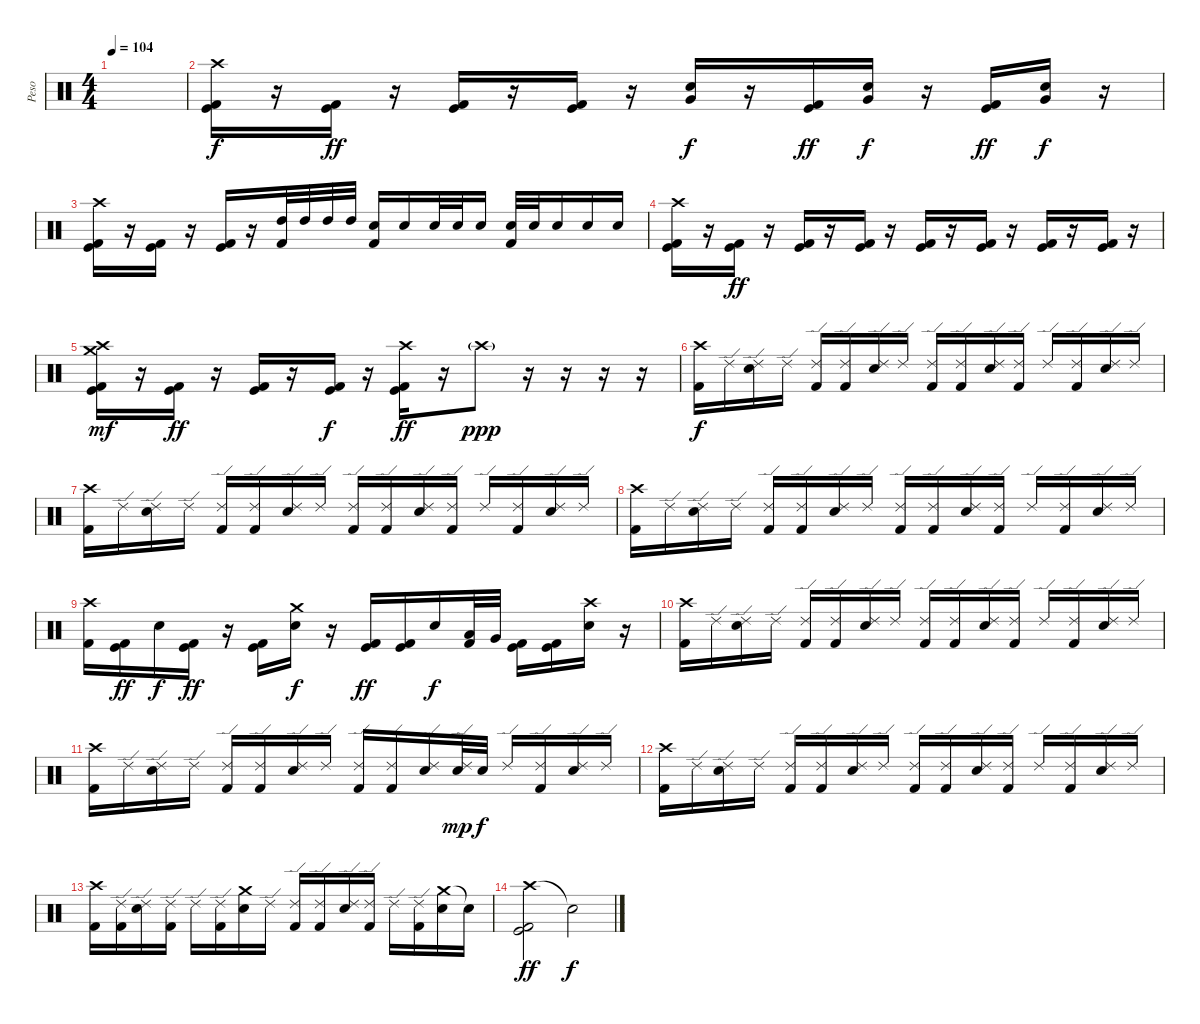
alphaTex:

\track ("Peso" "Peso") {instrument percussion}
\staff {score}
\articulation defaults
\ts (4 4)
\tempo 104
\clef neutral
\ks c
|
("Crash high (hit)" "Kick (hit)" "Kick (hit) 2").16{dy f} r.16 ("Kick (hit)" "Kick (hit) 2").16{dy ff} r.16 ("Kick (hit)" "Kick (hit) 2").16 r.16 ("Kick (hit)" "Kick (hit) 2").16 r.16 ("Very Low Tom (hit)" "Electric Snare (hit)").16{dy f} r.16 ("Kick (hit)" "Kick (hit) 2").16{dy ff} ("Very Low Tom (hit)" "Electric Snare (hit)").16{dy f} r.16 ("Kick (hit)" "Kick (hit) 2").16{dy ff} ("Very Low Tom (hit)" "Electric Snare (hit)").16{dy f} r.16 |
("Crash high (hit)" "Kick (hit)" "Kick (hit) 2").16 r.16 ("Kick (hit)" "Kick (hit) 2").16 r.16 ("Kick (hit)" "Kick (hit) 2").16 r.16 ("High Tom (hit)" "Kick (hit) 2").32 "High Tom (hit)".32 "High Tom (hit)".32 "High Tom (hit)".32 ("Electric Snare (hit)" "Kick (hit) 2").16 "Electric Snare (hit)".16 "Electric Snare (hit)".32 "Electric Snare (hit)".32 "Electric Snare (hit)".16 ("Electric Snare (hit)" "Kick (hit) 2").32 "Electric Snare (hit)".32 "Electric Snare (hit)".16 "Electric Snare (hit)".16 "Electric Snare (hit)".16 |
("Crash high (hit)" "Kick (hit)" "Kick (hit) 2").16 r.16 ("Kick (hit)" "Kick (hit) 2").16{dy ff} r.16 ("Kick (hit)" "Kick (hit) 2").16 r.16 ("Kick (hit)" "Kick (hit) 2").16 r.16 ("Kick (hit)" "Kick (hit) 2").16 r.16 ("Kick (hit)" "Kick (hit) 2").16 r.16 ("Kick (hit)" "Kick (hit) 2").16 r.16 ("Kick (hit)" "Kick (hit) 2").16 r.16 |
("Crash high (hit)" "Crash medium (hit)" "Kick (hit)" "Kick (hit) 2").16{dy mf} r.16 ("Kick (hit)" "Kick (hit) 2").16{dy ff} r.16 ("Kick (hit)" "Kick (hit) 2").16 r.16 ("Kick (hit)" "Kick (hit) 2").16{dy f} r.16 ("Crash high (hit)" "Kick (hit)" "Kick (hit) 2").16{dy ff} r.16 "Crash high (hit)"{g}.8{dy ppp} r.16 r.16 r.16 r.16 |
("Crash high (hit)" "Kick (hit) 2").16{dy f} "Ride (edge) 2".16 ("Ride (edge) 2" "Electric Snare (hit)").16 "Ride (edge) 2".16 ("Ride (edge) 2" "Kick (hit) 2").16 ("Ride (edge) 2" "Kick (hit) 2").16 ("Ride (edge) 2" "Electric Snare (hit)").16 "Ride (edge) 2".16 ("Ride (edge) 2" "Kick (hit) 2").16 ("Ride (edge) 2" "Kick (hit) 2").16 ("Ride (edge) 2" "Electric Snare (hit)").16 ("Ride (edge) 2" "Kick (hit) 2").16 "Ride (edge) 2".16 ("Ride (edge) 2" "Kick (hit) 2").16 ("Ride (edge) 2" "Electric Snare (hit)").16 "Ride (edge) 2".16 |
("Crash high (hit)" "Kick (hit) 2").16 "Ride (edge) 2".16 ("Ride (edge) 2" "Electric Snare (hit)").16 "Ride (edge) 2".16 ("Ride (edge) 2" "Kick (hit) 2").16 ("Ride (edge) 2" "Kick (hit) 2").16 ("Ride (edge) 2" "Electric Snare (hit)").16 "Ride (edge) 2".16 ("Ride (edge) 2" "Kick (hit) 2").16 ("Ride (edge) 2" "Kick (hit) 2").16 ("Ride (edge) 2" "Electric Snare (hit)").16 ("Ride (edge) 2" "Kick (hit) 2").16 "Ride (edge) 2".16 ("Ride (edge) 2" "Kick (hit) 2").16 ("Ride (edge) 2" "Electric Snare (hit)").16 "Ride (edge) 2".16 |
("Crash high (hit)" "Kick (hit) 2").16 "Ride (edge) 2".16 ("Ride (edge) 2" "Electric Snare (hit)").16 "Ride (edge) 2".16 ("Ride (edge) 2" "Kick (hit) 2").16 ("Ride (edge) 2" "Kick (hit) 2").16 ("Ride (edge) 2" "Electric Snare (hit)").16 "Ride (edge) 2".16 ("Ride (edge) 2" "Kick (hit) 2").16 ("Ride (edge) 2" "Kick (hit) 2").16 ("Ride (edge) 2" "Electric Snare (hit)").16 ("Ride (edge) 2" "Kick (hit) 2").16 "Ride (edge) 2".16 ("Ride (edge) 2" "Kick (hit) 2").16 ("Ride (edge) 2" "Electric Snare (hit)").16 "Ride (edge) 2".16 |
("Crash high (hit)" "Kick (hit) 2").16 ("Kick (hit)" "Kick (hit) 2").16{dy ff} "Electric Snare (hit)".16{dy f} ("Kick (hit)" "Kick (hit) 2").16{dy ff} r.16 ("Kick (hit)" "Kick (hit) 2").16 ("Crash medium (hit)" "Electric Snare (hit)").16{dy f} r.16 ("Kick (hit)" "Kick (hit) 2").16{dy ff} ("Kick (hit)" "Kick (hit) 2").16 "Electric Snare (hit)".16{dy f} ("Low Tom (hit)" "Kick (hit) 2").32 "Very Low Tom (hit)".32 ("Kick (hit)" "Kick (hit) 2").16 ("Kick (hit)" "Kick (hit) 2").16 ("Crash high (hit)" "Electric Snare (hit)").16 r.16 |
("Crash high (hit)" "Kick (hit) 2").16 "Ride (edge) 2".16 ("Ride (edge) 2" "Electric Snare (hit)").16 "Ride (edge) 2".16 ("Ride (edge) 2" "Kick (hit) 2").16 ("Ride (edge) 2" "Kick (hit) 2").16 ("Ride (edge) 2" "Electric Snare (hit)").16 "Ride (edge) 2".16 ("Ride (edge) 2" "Kick (hit) 2").16 ("Ride (edge) 2" "Kick (hit) 2").16 ("Ride (edge) 2" "Electric Snare (hit)").16 ("Ride (edge) 2" "Kick (hit) 2").16 "Ride (edge) 2".16 ("Ride (edge) 2" "Kick (hit) 2").16 ("Ride (edge) 2" "Electric Snare (hit)").16 "Ride (edge) 2".16 |
("Crash high (hit)" "Kick (hit) 2").16 "Ride (edge) 2".16 ("Ride (edge) 2" "Electric Snare (hit)").16 "Ride (edge) 2".16 ("Ride (edge) 2" "Kick (hit) 2").16 ("Ride (edge) 2" "Kick (hit) 2").16 ("Ride (edge) 2" "Electric Snare (hit)").16 "Ride (edge) 2".16 ("Ride (edge) 2" "Kick (hit) 2").16 ("Ride (edge) 2" "Kick (hit) 2").16 ("Ride (edge) 2" "Electric Snare (hit)").16 ("Ride (edge) 2" "Electric Snare (hit)").32{dy mp} "Electric Snare (hit)".32{dy f} "Ride (edge) 2".16 ("Ride (edge) 2" "Kick (hit) 2").16 ("Ride (edge) 2" "Electric Snare (hit)").16 "Ride (edge) 2".16 |
("Crash high (hit)" "Kick (hit) 2").16 "Ride (edge) 2".16 ("Ride (edge) 2" "Electric Snare (hit)").16 "Ride (edge) 2".16 ("Ride (edge) 2" "Kick (hit) 2").16 ("Ride (edge) 2" "Kick (hit) 2").16 ("Ride (edge) 2" "Electric Snare (hit)").16 "Ride (edge) 2".16 ("Ride (edge) 2" "Kick (hit) 2").16 ("Ride (edge) 2" "Kick (hit) 2").16 ("Ride (edge) 2" "Electric Snare (hit)").16 ("Ride (edge) 2" "Kick (hit) 2").16 "Ride (edge) 2".16 ("Ride (edge) 2" "Kick (hit) 2").16 ("Ride (edge) 2" "Electric Snare (hit)").16 "Ride (edge) 2".16 |
("Crash high (hit)" "Kick (hit) 2").16 ("Ride (edge) 2" "Kick (hit) 2").16 ("Ride (edge) 2" "Electric Snare (hit)").16 ("Ride (edge) 2" "Kick (hit) 2").16 "Ride (edge) 2".16 ("Ride (edge) 2" "Kick (hit) 2").16 ("Crash medium (hit)" "Electric Snare (hit)").16 "Ride (edge) 2".16 ("Ride (edge) 2" "Kick (hit) 2").16 ("Ride (edge) 2" "Kick (hit) 2").16 ("Ride (edge) 2" "Electric Snare (hit)").16 ("Ride (edge) 2" "Kick (hit) 2").16 "Ride (edge) 2".16 ("Ride (edge) 2" "Kick (hit) 2").16 ("Crash medium (hit)" "Electric Snare (hit)").16 "Snare (hit)"{t}.16 |
("Crash high (hit)" "Kick (hit)" "Kick (hit) 2").2{dy ff} "Snare (hit)"{t}.2{dy f}
